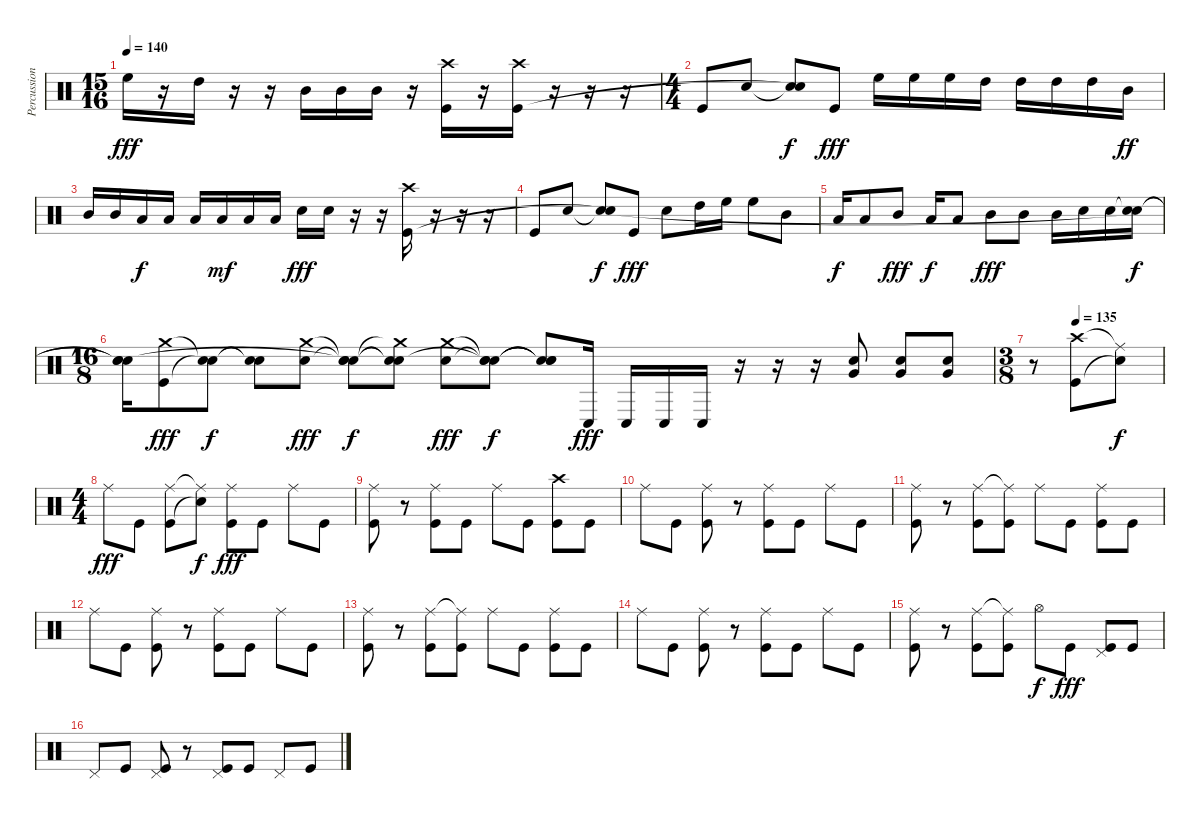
\track ("Percussions" "Percussion") {instrument percussion}
\staff {score}
\articulation defaults
\ts (15 16)
\tempo 140
\clef neutral
\ks c "High Floor Tom (hit)".16{dy fff}
r.16 "High Tom (hit)".16 r.16 r.16 "Mid Tom (hit)".16 "Mid Tom (hit)".16 "Mid Tom (hit)".16 r.16 ("Crash high (hit)" "Kick (hit)").16{volume 16} r.16 ("Crash high (hit)" "Kick (hit)").16 r.16 r.16 r.16 |
\ts (4 4)
"Kick (hit)".8 "Electric Snare (hit)".8 ("Snare (hit)"{t} "Snare (hit)"{t}).8{dy f} "Kick (hit)".8{dy fff} "High Floor Tom (hit)".16{volume 11} "High Floor Tom (hit)".16 "High Floor Tom (hit)".16 "High Tom (hit)".16 "High Tom (hit)".16 "High Tom (hit)".16 "High Tom (hit)".16 "Mid Tom (hit)".16{dy ff} |
"Mid Tom (hit)".16 "Mid Tom (hit)".16 "Low Tom (hit)".16{dy f} "Low Tom (hit)".16 "Low Tom (hit)".16 "Low Floor Tom (hit)".16{dy mf} "Low Floor Tom (hit)".16 "Low Floor Tom (hit)".16 "Electric Snare (hit)".16{dy fff volume 16} "Electric Snare (hit)".16 r.16 r.16 ("Crash high (hit)" "Kick (hit)").16 r.16 r.16 r.16 |
"Kick (hit)".8 "Electric Snare (hit)".8 ("Snare (hit)"{t} "Snare (hit)"{t}).8{dy f} "Kick (hit)".8{dy fff} "Electric Snare (hit)".8 "High Tom (hit)".16{volume 11} "High Floor Tom (hit)".16 "High Floor Tom (hit)".8 "Mid Tom (hit)".8 |
"Low Tom (hit)".16{dy f} "Low Tom (hit)".8 "Mid Tom (hit)".8{dy fff} "Low Tom (hit)".16{dy f} "Low Tom (hit)".8 "Mid Tom (hit)".8{dy fff} "Mid Tom (hit)".8 "Mid Tom (hit)".16 "Electric Snare (hit)".16{volume 16} "Electric Snare (hit)".16 ("Snare (hit)"{t} "Snare (hit)"{t}).16{dy f} |
\ts (16 8)
("Snare (hit)"{t} "Snare (hit)"{t} "Snare (hit)").16 ("Crash medium (hit)" "Kick (hit)").8{dy fff} ("Snare (hit)"{t} "Snare (hit)"{t}).8{dy f} ("Snare (hit)"{t} "Snare (hit)"{t}).8 ("Crash medium (hit)" "Electric Snare (hit)").8{dy fff} ("Snare (hit)"{t} "Snare (hit)"{t} "Snare (hit)"{t}).8{dy f} ("Crash medium (hit)"{t} "Electric Snare (hit)"{t} "Electric Snare (hit)"{t}).8 ("Crash medium (hit)" "Electric Snare (hit)").8{dy fff} ("Snare (hit)"{t} "Snare (hit)"{t} "Snare (hit)"{t}).8{dy f} ("Snare (hit)"{t} "Snare (hit)"{t} "Snare (hit)"{t}).8 "Conga low (hit)".16{dy fff volume 13} "Conga low (hit)".16 "Conga low (hit)".16 "Conga low (hit)".16 r.16 r.16 r.16 ("Electric Snare (hit)" "Very Low Tom (hit)").8{volume 14} ("Electric Snare (hit)" "Very Low Tom (hit)").8 ("Electric Snare (hit)" "Very Low Tom (hit)").8 |
\ts (3 8)
\tempo (135 0.3333333333333333)
r.8 ("Crash high (hit)" "Kick (hit)").8 ("Ride (middle)"{t} "Snare (hit)"{t}).8{dy f} |
\ts (4 4)
"Ride (middle)".8{dy fff} "Kick (hit)".8 ("Ride (middle)" "Kick (hit)").8 ("Ride (middle)"{t} "Snare (hit)"{t}).8{dy f} ("Ride (middle)" "Kick (hit)").8{dy fff} "Kick (hit)".8 "Ride (middle)".8 "Kick (hit)".8 |
("Ride (middle)" "Kick (hit)").8 r.8 ("Ride (middle)" "Kick (hit)").8 "Kick (hit)".8 "Ride (middle)".8 "Kick (hit)".8 ("Crash high (hit)" "Kick (hit)").8 "Kick (hit)".8 |
"Ride (middle)".8 "Kick (hit)".8 ("Ride (middle)" "Kick (hit)").8 r.8 ("Ride (middle)" "Kick (hit)").8 "Kick (hit)".8 "Ride (middle)".8 "Kick (hit)".8 |
("Ride (middle)" "Kick (hit)").8 r.8 ("Ride (middle)" "Kick (hit)").8 ("Ride (middle)"{t} "Kick (hit)").8 "Ride (middle)".8 "Kick (hit)".8 ("Ride (middle)" "Kick (hit)").8 "Kick (hit)".8 |
"Ride (middle)".8 "Kick (hit)".8 ("Ride (middle)" "Kick (hit)").8 r.8 ("Ride (middle)" "Kick (hit)").8 "Kick (hit)".8 "Ride (middle)".8 "Kick (hit)".8 |
("Ride (middle)" "Kick (hit)").8 r.8 ("Ride (middle)" "Kick (hit)").8 ("Ride (middle)"{t} "Kick (hit)").8 "Ride (middle)".8 "Kick (hit)".8 ("Ride (middle)" "Kick (hit)").8 "Kick (hit)".8 |
"Ride (middle)".8 "Kick (hit)".8 ("Ride (middle)" "Kick (hit)").8 r.8 ("Ride (middle)" "Kick (hit)").8 "Kick (hit)".8 "Ride (middle)".8 "Kick (hit)".8 |
("Ride (middle)" "Kick (hit)").8 r.8 ("Ride (middle)" "Kick (hit)").8 ("Ride (middle)"{t} "Kick (hit)").8 "Hi-Hat (open)".8{dy f} "Kick (hit)".8{dy fff} ("Pedal Hi-Hat (hit)" "Kick (hit)").8 "Kick (hit)".8 |
"Pedal Hi-Hat (hit)".8 "Kick (hit)".8 ("Pedal Hi-Hat (hit)" "Kick (hit)").8 r.8 ("Pedal Hi-Hat (hit)" "Kick (hit)").8 "Kick (hit)".8 "Pedal Hi-Hat (hit)".8 "Kick (hit)".8
